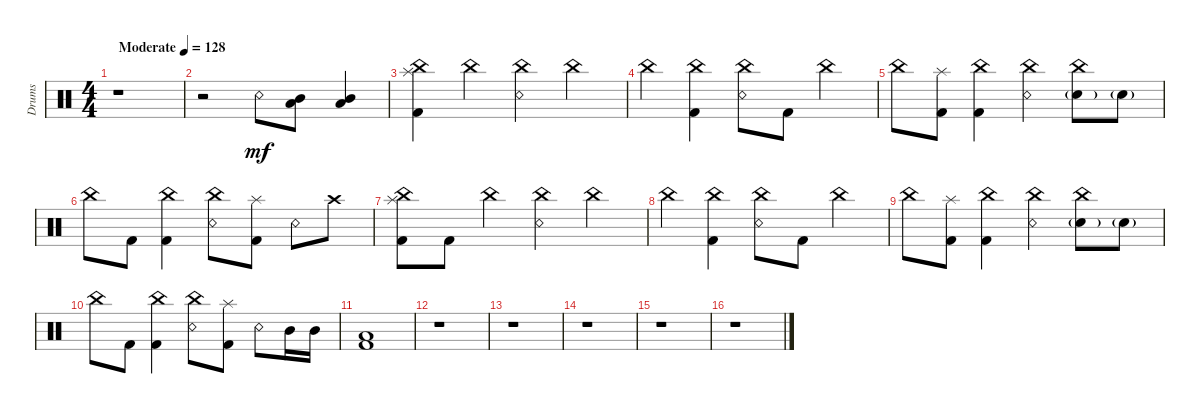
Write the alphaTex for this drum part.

\track ("Drums" "Drums") {instrument percussion}
\staff {score}
\articulation defaults
\ts (4 4)
\tempo (128 "Moderate")
\clef neutral
\ks c
r.1{dy mf} |
r.2 "Snare (rim shot)".8 ("Mid Tom (hit)" "Low Tom (hit)").8 ("Mid Tom (hit)" "Low Tom (hit)").4 |
("China (hit)" "Splash (hit)" "Kick (hit) 2").4 "China (hit)".4 ("China (hit)" "Snare (rim shot)").4 "China (hit)".4 |
"China (hit)".4 ("China (hit)" "Kick (hit) 2").4 ("China (hit)" "Snare (rim shot)").8 "Kick (hit) 2".8 "China (hit)".4 |
"China (hit)".8 ("Splash (hit)" "Kick (hit) 2").8 ("China (hit)" "Kick (hit) 2").4 ("China (hit)" "Snare (rim shot)").4 ("China (hit)" "Snare (hit) 2"{g}).8 "Snare (hit) 2"{g}.8 |
"China (hit)".8 "Kick (hit) 2".8 ("China (hit)" "Kick (hit) 2").4 ("China (hit)" "Snare (rim shot)").8 ("Splash (hit)" "Kick (hit) 2").8 "Snare (rim shot)".8 "Crash high (hit)".8 |
("China (hit)" "Splash (hit)" "Kick (hit) 2").8 "Kick (hit) 2".8 "China (hit)".4 ("China (hit)" "Snare (rim shot)").4 "China (hit)".4 |
"China (hit)".4 ("China (hit)" "Kick (hit) 2").4 ("China (hit)" "Snare (rim shot)").8 "Kick (hit) 2".8 "China (hit)".4 |
"China (hit)".8 ("Splash (hit)" "Kick (hit) 2").8 ("China (hit)" "Kick (hit) 2").4 ("China (hit)" "Snare (rim shot)").4 ("China (hit)" "Snare (hit) 2"{g}).8 "Snare (hit) 2"{g}.8 |
"China (hit)".8 "Kick (hit) 2".8 ("China (hit)" "Kick (hit) 2").4 ("China (hit)" "Snare (rim shot)").8 ("Splash (hit)" "Kick (hit) 2").8 "Snare (rim shot)".8 "Mid Tom (hit)".16 "Mid Tom (hit)".16 |
("Low Tom (hit)" "Kick (hit) 2").1 |
r.1 |
r.1 |
r.1 |
r.1 |
r.1
